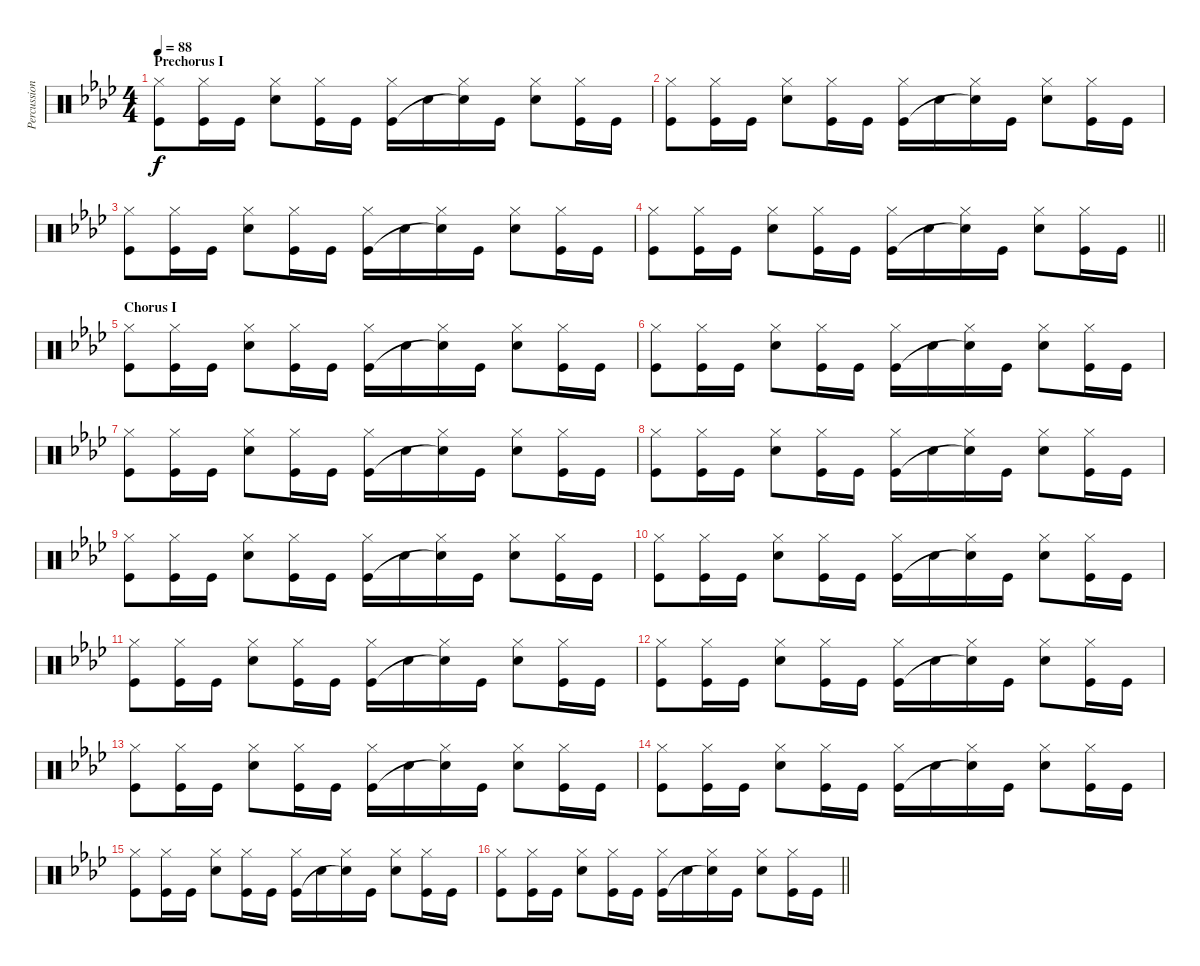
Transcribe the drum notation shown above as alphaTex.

\track ("Percussion" "Percussion") {instrument percussion}
\staff {score}
\articulation defaults
\ts (4 4)
\section ("" "Prechorus I")
\tempo 88
\clef neutral
\ks ab
("Hi-Hat (closed)" "Kick (hit)").8{dy f} ("Hi-Hat (closed)" "Kick (hit)").16 "Kick (hit)".16 ("Hi-Hat (closed)" "Snare (hit) 2").8 ("Hi-Hat (closed)" "Kick (hit)").16 "Kick (hit)".16 ("Hi-Hat (closed)" "Kick (hit)").16 "Snare (hit) 2".16 ("Hi-Hat (closed)" "Snare (hit) 2"{t}).16 "Kick (hit)".16 ("Hi-Hat (closed)" "Snare (hit) 2").8 ("Hi-Hat (closed)" "Kick (hit)").16 "Kick (hit)".16 |
("Hi-Hat (closed)" "Kick (hit)").8 ("Hi-Hat (closed)" "Kick (hit)").16 "Kick (hit)".16 ("Hi-Hat (closed)" "Snare (hit) 2").8 ("Hi-Hat (closed)" "Kick (hit)").16 "Kick (hit)".16 ("Hi-Hat (closed)" "Kick (hit)").16 "Snare (hit) 2".16 ("Hi-Hat (closed)" "Snare (hit) 2"{t}).16 "Kick (hit)".16 ("Hi-Hat (closed)" "Snare (hit) 2").8 ("Hi-Hat (closed)" "Kick (hit)").16 "Kick (hit)".16 |
("Hi-Hat (closed)" "Kick (hit)").8 ("Hi-Hat (closed)" "Kick (hit)").16 "Kick (hit)".16 ("Hi-Hat (closed)" "Snare (hit) 2").8 ("Hi-Hat (closed)" "Kick (hit)").16 "Kick (hit)".16 ("Hi-Hat (closed)" "Kick (hit)").16 "Snare (hit) 2".16 ("Hi-Hat (closed)" "Snare (hit) 2"{t}).16 "Kick (hit)".16 ("Hi-Hat (closed)" "Snare (hit) 2").8 ("Hi-Hat (closed)" "Kick (hit)").16 "Kick (hit)".16 |
\barLineRight lightlight
("Hi-Hat (closed)" "Kick (hit)").8 ("Hi-Hat (closed)" "Kick (hit)").16 "Kick (hit)".16 ("Hi-Hat (closed)" "Snare (hit) 2").8 ("Hi-Hat (closed)" "Kick (hit)").16 "Kick (hit)".16 ("Hi-Hat (closed)" "Kick (hit)").16 "Snare (hit) 2".16 ("Hi-Hat (closed)" "Snare (hit) 2"{t}).16 "Kick (hit)".16 ("Hi-Hat (closed)" "Snare (hit) 2").8 ("Hi-Hat (closed)" "Kick (hit)").16 "Kick (hit)".16 |
\section ("" "Chorus I")
("Hi-Hat (closed)" "Kick (hit)").8 ("Hi-Hat (closed)" "Kick (hit)").16 "Kick (hit)".16 ("Hi-Hat (closed)" "Snare (hit) 2").8 ("Hi-Hat (closed)" "Kick (hit)").16 "Kick (hit)".16 ("Hi-Hat (closed)" "Kick (hit)").16 "Snare (hit) 2".16 ("Hi-Hat (closed)" "Snare (hit) 2"{t}).16 "Kick (hit)".16 ("Hi-Hat (closed)" "Snare (hit) 2").8 ("Hi-Hat (closed)" "Kick (hit)").16 "Kick (hit)".16 |
("Hi-Hat (closed)" "Kick (hit)").8 ("Hi-Hat (closed)" "Kick (hit)").16 "Kick (hit)".16 ("Hi-Hat (closed)" "Snare (hit) 2").8 ("Hi-Hat (closed)" "Kick (hit)").16 "Kick (hit)".16 ("Hi-Hat (closed)" "Kick (hit)").16 "Snare (hit) 2".16 ("Hi-Hat (closed)" "Snare (hit) 2"{t}).16 "Kick (hit)".16 ("Hi-Hat (closed)" "Snare (hit) 2").8 ("Hi-Hat (closed)" "Kick (hit)").16 "Kick (hit)".16 |
("Hi-Hat (closed)" "Kick (hit)").8 ("Hi-Hat (closed)" "Kick (hit)").16 "Kick (hit)".16 ("Hi-Hat (closed)" "Snare (hit) 2").8 ("Hi-Hat (closed)" "Kick (hit)").16 "Kick (hit)".16 ("Hi-Hat (closed)" "Kick (hit)").16 "Snare (hit) 2".16 ("Hi-Hat (closed)" "Snare (hit) 2"{t}).16 "Kick (hit)".16 ("Hi-Hat (closed)" "Snare (hit) 2").8 ("Hi-Hat (closed)" "Kick (hit)").16 "Kick (hit)".16 |
("Hi-Hat (closed)" "Kick (hit)").8 ("Hi-Hat (closed)" "Kick (hit)").16 "Kick (hit)".16 ("Hi-Hat (closed)" "Snare (hit) 2").8 ("Hi-Hat (closed)" "Kick (hit)").16 "Kick (hit)".16 ("Hi-Hat (closed)" "Kick (hit)").16 "Snare (hit) 2".16 ("Hi-Hat (closed)" "Snare (hit) 2"{t}).16 "Kick (hit)".16 ("Hi-Hat (closed)" "Snare (hit) 2").8 ("Hi-Hat (closed)" "Kick (hit)").16 "Kick (hit)".16 |
("Hi-Hat (closed)" "Kick (hit)").8 ("Hi-Hat (closed)" "Kick (hit)").16 "Kick (hit)".16 ("Hi-Hat (closed)" "Snare (hit) 2").8 ("Hi-Hat (closed)" "Kick (hit)").16 "Kick (hit)".16 ("Hi-Hat (closed)" "Kick (hit)").16 "Snare (hit) 2".16 ("Hi-Hat (closed)" "Snare (hit) 2"{t}).16 "Kick (hit)".16 ("Hi-Hat (closed)" "Snare (hit) 2").8 ("Hi-Hat (closed)" "Kick (hit)").16 "Kick (hit)".16 |
("Hi-Hat (closed)" "Kick (hit)").8 ("Hi-Hat (closed)" "Kick (hit)").16 "Kick (hit)".16 ("Hi-Hat (closed)" "Snare (hit) 2").8 ("Hi-Hat (closed)" "Kick (hit)").16 "Kick (hit)".16 ("Hi-Hat (closed)" "Kick (hit)").16 "Snare (hit) 2".16 ("Hi-Hat (closed)" "Snare (hit) 2"{t}).16 "Kick (hit)".16 ("Hi-Hat (closed)" "Snare (hit) 2").8 ("Hi-Hat (closed)" "Kick (hit)").16 "Kick (hit)".16 |
("Hi-Hat (closed)" "Kick (hit)").8 ("Hi-Hat (closed)" "Kick (hit)").16 "Kick (hit)".16 ("Hi-Hat (closed)" "Snare (hit) 2").8 ("Hi-Hat (closed)" "Kick (hit)").16 "Kick (hit)".16 ("Hi-Hat (closed)" "Kick (hit)").16 "Snare (hit) 2".16 ("Hi-Hat (closed)" "Snare (hit) 2"{t}).16 "Kick (hit)".16 ("Hi-Hat (closed)" "Snare (hit) 2").8 ("Hi-Hat (closed)" "Kick (hit)").16 "Kick (hit)".16 |
("Hi-Hat (closed)" "Kick (hit)").8 ("Hi-Hat (closed)" "Kick (hit)").16 "Kick (hit)".16 ("Hi-Hat (closed)" "Snare (hit) 2").8 ("Hi-Hat (closed)" "Kick (hit)").16 "Kick (hit)".16 ("Hi-Hat (closed)" "Kick (hit)").16 "Snare (hit) 2".16 ("Hi-Hat (closed)" "Snare (hit) 2"{t}).16 "Kick (hit)".16 ("Hi-Hat (closed)" "Snare (hit) 2").8 ("Hi-Hat (closed)" "Kick (hit)").16 "Kick (hit)".16 |
("Hi-Hat (closed)" "Kick (hit)").8 ("Hi-Hat (closed)" "Kick (hit)").16 "Kick (hit)".16 ("Hi-Hat (closed)" "Snare (hit) 2").8 ("Hi-Hat (closed)" "Kick (hit)").16 "Kick (hit)".16 ("Hi-Hat (closed)" "Kick (hit)").16 "Snare (hit) 2".16 ("Hi-Hat (closed)" "Snare (hit) 2"{t}).16 "Kick (hit)".16 ("Hi-Hat (closed)" "Snare (hit) 2").8 ("Hi-Hat (closed)" "Kick (hit)").16 "Kick (hit)".16 |
("Hi-Hat (closed)" "Kick (hit)").8 ("Hi-Hat (closed)" "Kick (hit)").16 "Kick (hit)".16 ("Hi-Hat (closed)" "Snare (hit) 2").8 ("Hi-Hat (closed)" "Kick (hit)").16 "Kick (hit)".16 ("Hi-Hat (closed)" "Kick (hit)").16 "Snare (hit) 2".16 ("Hi-Hat (closed)" "Snare (hit) 2"{t}).16 "Kick (hit)".16 ("Hi-Hat (closed)" "Snare (hit) 2").8 ("Hi-Hat (closed)" "Kick (hit)").16 "Kick (hit)".16 |
("Hi-Hat (closed)" "Kick (hit)").8 ("Hi-Hat (closed)" "Kick (hit)").16 "Kick (hit)".16 ("Hi-Hat (closed)" "Snare (hit) 2").8 ("Hi-Hat (closed)" "Kick (hit)").16 "Kick (hit)".16 ("Hi-Hat (closed)" "Kick (hit)").16 "Snare (hit) 2".16 ("Hi-Hat (closed)" "Snare (hit) 2"{t}).16 "Kick (hit)".16 ("Hi-Hat (closed)" "Snare (hit) 2").8 ("Hi-Hat (closed)" "Kick (hit)").16 "Kick (hit)".16 |
\barLineRight lightlight
("Hi-Hat (closed)" "Kick (hit)").8 ("Hi-Hat (closed)" "Kick (hit)").16 "Kick (hit)".16 ("Hi-Hat (closed)" "Snare (hit) 2").8 ("Hi-Hat (closed)" "Kick (hit)").16 "Kick (hit)".16 ("Hi-Hat (closed)" "Kick (hit)").16 "Snare (hit) 2".16 ("Hi-Hat (closed)" "Snare (hit) 2"{t}).16 "Kick (hit)".16 ("Hi-Hat (closed)" "Snare (hit) 2").8 ("Hi-Hat (closed)" "Kick (hit)").16 "Kick (hit)".16
